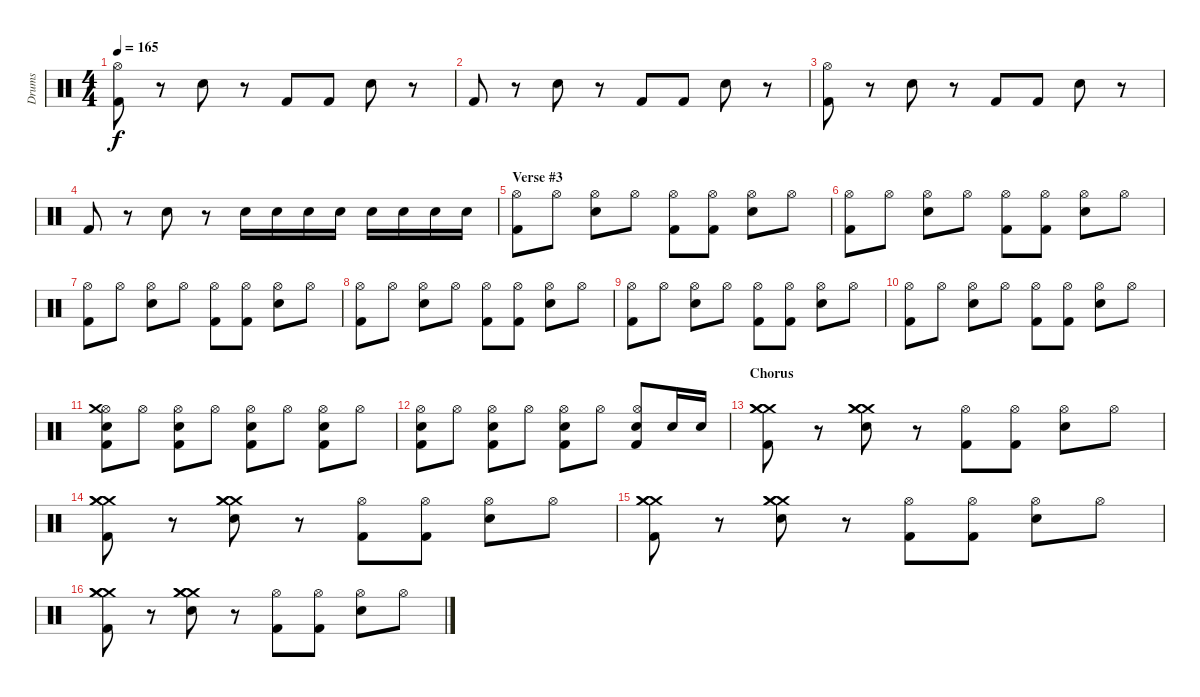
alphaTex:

\track ("Drums" "Drums") {instrument percussion}
\staff {score}
\articulation defaults
\ts (4 4)
\tempo 165
\clef neutral
\ks c
("Kick (hit) 2" "Hi-Hat (open)").8{dy f} r.8 "Electric Snare (hit)".8 r.8 "Kick (hit) 2".8 "Kick (hit) 2".8 "Electric Snare (hit)".8 r.8 |
"Kick (hit) 2".8 r.8 "Electric Snare (hit)".8 r.8 "Kick (hit) 2".8 "Kick (hit) 2".8 "Electric Snare (hit)".8 r.8 |
("Kick (hit) 2" "Hi-Hat (open)").8 r.8 "Electric Snare (hit)".8 r.8 "Kick (hit) 2".8 "Kick (hit) 2".8 "Electric Snare (hit)".8 r.8 |
"Kick (hit) 2".8 r.8 "Electric Snare (hit)".8 r.8 "Electric Snare (hit)".16 "Electric Snare (hit)".16 "Electric Snare (hit)".16 "Electric Snare (hit)".16 "Electric Snare (hit)".16 "Electric Snare (hit)".16 "Electric Snare (hit)".16 "Electric Snare (hit)".16 |
\section ("" "Verse #3")
("Kick (hit) 2" "Hi-Hat (open)").8 "Hi-Hat (open)".8 ("Electric Snare (hit)" "Hi-Hat (open)").8 "Hi-Hat (open)".8 ("Kick (hit) 2" "Hi-Hat (open)").8 ("Kick (hit) 2" "Hi-Hat (open)").8 ("Electric Snare (hit)" "Hi-Hat (open)").8 "Hi-Hat (open)".8 |
("Kick (hit) 2" "Hi-Hat (open)").8 "Hi-Hat (open)".8 ("Electric Snare (hit)" "Hi-Hat (open)").8 "Hi-Hat (open)".8 ("Kick (hit) 2" "Hi-Hat (open)").8 ("Kick (hit) 2" "Hi-Hat (open)").8 ("Electric Snare (hit)" "Hi-Hat (open)").8 "Hi-Hat (open)".8 |
("Kick (hit) 2" "Hi-Hat (open)").8 "Hi-Hat (open)".8 ("Electric Snare (hit)" "Hi-Hat (open)").8 "Hi-Hat (open)".8 ("Kick (hit) 2" "Hi-Hat (open)").8 ("Kick (hit) 2" "Hi-Hat (open)").8 ("Electric Snare (hit)" "Hi-Hat (open)").8 "Hi-Hat (open)".8 |
("Kick (hit) 2" "Hi-Hat (open)").8 "Hi-Hat (open)".8 ("Electric Snare (hit)" "Hi-Hat (open)").8 "Hi-Hat (open)".8 ("Kick (hit) 2" "Hi-Hat (open)").8 ("Kick (hit) 2" "Hi-Hat (open)").8 ("Electric Snare (hit)" "Hi-Hat (open)").8 "Hi-Hat (open)".8 |
("Kick (hit) 2" "Hi-Hat (open)").8 "Hi-Hat (open)".8 ("Electric Snare (hit)" "Hi-Hat (open)").8 "Hi-Hat (open)".8 ("Kick (hit) 2" "Hi-Hat (open)").8 ("Kick (hit) 2" "Hi-Hat (open)").8 ("Electric Snare (hit)" "Hi-Hat (open)").8 "Hi-Hat (open)".8 |
("Kick (hit) 2" "Hi-Hat (open)").8 "Hi-Hat (open)".8 ("Electric Snare (hit)" "Hi-Hat (open)").8 "Hi-Hat (open)".8 ("Kick (hit) 2" "Hi-Hat (open)").8 ("Kick (hit) 2" "Hi-Hat (open)").8 ("Electric Snare (hit)" "Hi-Hat (open)").8 "Hi-Hat (open)".8 |
("Electric Snare (hit)" "Kick (hit) 2" "Hi-Hat (open)" "Crash medium (hit)").8 "Hi-Hat (open)".8 ("Electric Snare (hit)" "Kick (hit) 2" "Hi-Hat (open)").8 "Hi-Hat (open)".8 ("Electric Snare (hit)" "Kick (hit) 2" "Hi-Hat (open)").8 "Hi-Hat (open)".8 ("Electric Snare (hit)" "Kick (hit) 2" "Hi-Hat (open)").8 "Hi-Hat (open)".8 |
("Electric Snare (hit)" "Kick (hit) 2" "Hi-Hat (open)").8 "Hi-Hat (open)".8 ("Electric Snare (hit)" "Kick (hit) 2" "Hi-Hat (open)").8 "Hi-Hat (open)".8 ("Electric Snare (hit)" "Kick (hit) 2" "Hi-Hat (open)").8 "Hi-Hat (open)".8 ("Electric Snare (hit)" "Kick (hit) 2" "Hi-Hat (open)").8 "Electric Snare (hit)".16 "Electric Snare (hit)".16 |
\section ("" "Chorus")
("Kick (hit) 2" "Crash medium (hit)" "Crash medium (hit)" "Crash medium (hit)").8 r.8 ("Electric Snare (hit)" "Crash medium (hit)" "Crash medium (hit)" "Crash medium (hit)").8 r.8 ("Kick (hit) 2" "Hi-Hat (open)").8 ("Kick (hit) 2" "Hi-Hat (open)").8 ("Electric Snare (hit)" "Hi-Hat (open)").8 "Hi-Hat (open)".8 |
("Kick (hit) 2" "Crash medium (hit)" "Crash medium (hit)" "Crash medium (hit)").8 r.8 ("Electric Snare (hit)" "Crash medium (hit)" "Crash medium (hit)" "Crash medium (hit)").8 r.8 ("Kick (hit) 2" "Hi-Hat (open)").8 ("Kick (hit) 2" "Hi-Hat (open)").8 ("Electric Snare (hit)" "Hi-Hat (open)").8 "Hi-Hat (open)".8 |
("Kick (hit) 2" "Crash medium (hit)" "Crash medium (hit)" "Crash medium (hit)").8 r.8 ("Electric Snare (hit)" "Crash medium (hit)" "Crash medium (hit)" "Crash medium (hit)").8 r.8 ("Kick (hit) 2" "Hi-Hat (open)").8 ("Kick (hit) 2" "Hi-Hat (open)").8 ("Electric Snare (hit)" "Hi-Hat (open)").8 "Hi-Hat (open)".8 |
("Kick (hit) 2" "Crash medium (hit)" "Crash medium (hit)" "Crash medium (hit)").8 r.8 ("Electric Snare (hit)" "Crash medium (hit)" "Crash medium (hit)" "Crash medium (hit)").8 r.8 ("Kick (hit) 2" "Hi-Hat (open)").8 ("Kick (hit) 2" "Hi-Hat (open)").8 ("Electric Snare (hit)" "Hi-Hat (open)").8 "Hi-Hat (open)".8
